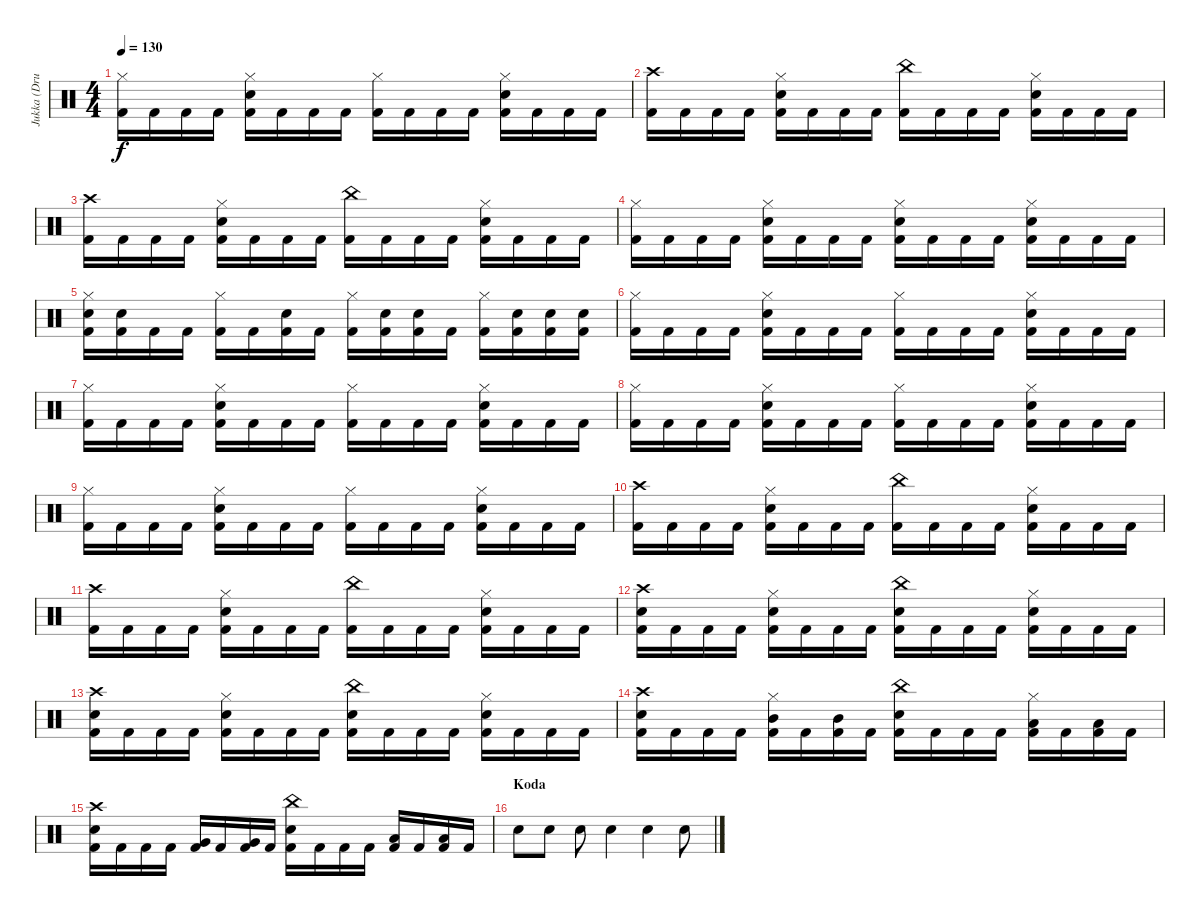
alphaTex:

\track ("Jukka (Drums)" "Jukka (Dru") {instrument percussion}
\staff {score}
\articulation defaults
\ts (4 4)
\tempo 130
\clef neutral
\ks c
("Hi-Hat (closed)" "Kick (hit) 2").16{dy f} "Kick (hit) 2".16 "Kick (hit) 2".16 "Kick (hit) 2".16 ("Hi-Hat (closed)" "Kick (hit) 2" "Electric Snare (hit)").16 "Kick (hit) 2".16 "Kick (hit) 2".16 "Kick (hit) 2".16 ("Hi-Hat (closed)" "Kick (hit) 2").16 "Kick (hit) 2".16 "Kick (hit) 2".16 "Kick (hit) 2".16 ("Hi-Hat (closed)" "Kick (hit) 2" "Electric Snare (hit)").16 "Kick (hit) 2".16 "Kick (hit) 2".16 "Kick (hit) 2".16 |
("Crash high (hit)" "Kick (hit) 2").16 "Kick (hit) 2".16 "Kick (hit) 2".16 "Kick (hit) 2".16 ("Hi-Hat (closed)" "Kick (hit) 2" "Electric Snare (hit)").16 "Kick (hit) 2".16 "Kick (hit) 2".16 "Kick (hit) 2".16 ("China (hit)" "Kick (hit) 2").16 "Kick (hit) 2".16 "Kick (hit) 2".16 "Kick (hit) 2".16 ("Hi-Hat (closed)" "Kick (hit) 2" "Electric Snare (hit)").16 "Kick (hit) 2".16 "Kick (hit) 2".16 "Kick (hit) 2".16 |
("Crash high (hit)" "Kick (hit) 2").16 "Kick (hit) 2".16 "Kick (hit) 2".16 "Kick (hit) 2".16 ("Hi-Hat (closed)" "Kick (hit) 2" "Electric Snare (hit)").16 "Kick (hit) 2".16 "Kick (hit) 2".16 "Kick (hit) 2".16 ("China (hit)" "Kick (hit) 2").16 "Kick (hit) 2".16 "Kick (hit) 2".16 "Kick (hit) 2".16 ("Hi-Hat (closed)" "Kick (hit) 2" "Electric Snare (hit)").16 "Kick (hit) 2".16 "Kick (hit) 2".16 "Kick (hit) 2".16 |
("Hi-Hat (closed)" "Kick (hit) 2").16 "Kick (hit) 2".16 "Kick (hit) 2".16 "Kick (hit) 2".16 ("Hi-Hat (closed)" "Kick (hit) 2" "Electric Snare (hit)").16 "Kick (hit) 2".16 "Kick (hit) 2".16 "Kick (hit) 2".16 ("Hi-Hat (closed)" "Kick (hit) 2" "Electric Snare (hit)").16 "Kick (hit) 2".16 "Kick (hit) 2".16 "Kick (hit) 2".16 ("Hi-Hat (closed)" "Kick (hit) 2" "Electric Snare (hit)").16 "Kick (hit) 2".16 "Kick (hit) 2".16 "Kick (hit) 2".16 |
("Hi-Hat (closed)" "Kick (hit) 2" "Electric Snare (hit)").16 ("Kick (hit) 2" "Electric Snare (hit)").16 "Kick (hit) 2".16 "Kick (hit) 2".16 ("Hi-Hat (closed)" "Kick (hit) 2").16 "Kick (hit) 2".16 ("Kick (hit) 2" "Electric Snare (hit)").16 "Kick (hit) 2".16 ("Hi-Hat (closed)" "Kick (hit) 2").16 ("Kick (hit) 2" "Electric Snare (hit)").16 ("Kick (hit) 2" "Electric Snare (hit)").16 "Kick (hit) 2".16 ("Hi-Hat (closed)" "Kick (hit) 2").16 ("Kick (hit) 2" "Electric Snare (hit)").16 ("Kick (hit) 2" "Electric Snare (hit)").16 ("Kick (hit) 2" "Electric Snare (hit)").16 |
("Hi-Hat (closed)" "Kick (hit) 2").16 "Kick (hit) 2".16 "Kick (hit) 2".16 "Kick (hit) 2".16 ("Hi-Hat (closed)" "Kick (hit) 2" "Electric Snare (hit)").16 "Kick (hit) 2".16 "Kick (hit) 2".16 "Kick (hit) 2".16 ("Hi-Hat (closed)" "Kick (hit) 2").16 "Kick (hit) 2".16 "Kick (hit) 2".16 "Kick (hit) 2".16 ("Hi-Hat (closed)" "Kick (hit) 2" "Electric Snare (hit)").16 "Kick (hit) 2".16 "Kick (hit) 2".16 "Kick (hit) 2".16 |
("Hi-Hat (closed)" "Kick (hit) 2").16 "Kick (hit) 2".16 "Kick (hit) 2".16 "Kick (hit) 2".16 ("Hi-Hat (closed)" "Kick (hit) 2" "Electric Snare (hit)").16 "Kick (hit) 2".16 "Kick (hit) 2".16 "Kick (hit) 2".16 ("Hi-Hat (closed)" "Kick (hit) 2").16 "Kick (hit) 2".16 "Kick (hit) 2".16 "Kick (hit) 2".16 ("Hi-Hat (closed)" "Kick (hit) 2" "Electric Snare (hit)").16 "Kick (hit) 2".16 "Kick (hit) 2".16 "Kick (hit) 2".16 |
("Hi-Hat (closed)" "Kick (hit) 2").16 "Kick (hit) 2".16 "Kick (hit) 2".16 "Kick (hit) 2".16 ("Hi-Hat (closed)" "Kick (hit) 2" "Electric Snare (hit)").16 "Kick (hit) 2".16 "Kick (hit) 2".16 "Kick (hit) 2".16 ("Hi-Hat (closed)" "Kick (hit) 2").16 "Kick (hit) 2".16 "Kick (hit) 2".16 "Kick (hit) 2".16 ("Hi-Hat (closed)" "Kick (hit) 2" "Electric Snare (hit)").16 "Kick (hit) 2".16 "Kick (hit) 2".16 "Kick (hit) 2".16 |
("Hi-Hat (closed)" "Kick (hit) 2").16 "Kick (hit) 2".16 "Kick (hit) 2".16 "Kick (hit) 2".16 ("Hi-Hat (closed)" "Kick (hit) 2" "Electric Snare (hit)").16 "Kick (hit) 2".16 "Kick (hit) 2".16 "Kick (hit) 2".16 ("Hi-Hat (closed)" "Kick (hit) 2").16 "Kick (hit) 2".16 "Kick (hit) 2".16 "Kick (hit) 2".16 ("Hi-Hat (closed)" "Kick (hit) 2" "Electric Snare (hit)").16 "Kick (hit) 2".16 "Kick (hit) 2".16 "Kick (hit) 2".16 |
("Crash high (hit)" "Kick (hit) 2").16 "Kick (hit) 2".16 "Kick (hit) 2".16 "Kick (hit) 2".16 ("Hi-Hat (closed)" "Kick (hit) 2" "Electric Snare (hit)").16 "Kick (hit) 2".16 "Kick (hit) 2".16 "Kick (hit) 2".16 ("China (hit)" "Kick (hit) 2").16 "Kick (hit) 2".16 "Kick (hit) 2".16 "Kick (hit) 2".16 ("Hi-Hat (closed)" "Kick (hit) 2" "Electric Snare (hit)").16 "Kick (hit) 2".16 "Kick (hit) 2".16 "Kick (hit) 2".16 |
("Crash high (hit)" "Kick (hit) 2").16 "Kick (hit) 2".16 "Kick (hit) 2".16 "Kick (hit) 2".16 ("Hi-Hat (closed)" "Kick (hit) 2" "Electric Snare (hit)").16 "Kick (hit) 2".16 "Kick (hit) 2".16 "Kick (hit) 2".16 ("China (hit)" "Kick (hit) 2").16 "Kick (hit) 2".16 "Kick (hit) 2".16 "Kick (hit) 2".16 ("Hi-Hat (closed)" "Kick (hit) 2" "Electric Snare (hit)").16 "Kick (hit) 2".16 "Kick (hit) 2".16 "Kick (hit) 2".16 |
("Crash high (hit)" "Kick (hit) 2" "Electric Snare (hit)").16 "Kick (hit) 2".16 "Kick (hit) 2".16 "Kick (hit) 2".16 ("Hi-Hat (closed)" "Kick (hit) 2" "Electric Snare (hit)").16 "Kick (hit) 2".16 "Kick (hit) 2".16 "Kick (hit) 2".16 ("China (hit)" "Kick (hit) 2" "Electric Snare (hit)").16 "Kick (hit) 2".16 "Kick (hit) 2".16 "Kick (hit) 2".16 ("Hi-Hat (closed)" "Kick (hit) 2" "Electric Snare (hit)").16 "Kick (hit) 2".16 "Kick (hit) 2".16 "Kick (hit) 2".16 |
("Crash high (hit)" "Kick (hit) 2" "Electric Snare (hit)").16 "Kick (hit) 2".16 "Kick (hit) 2".16 "Kick (hit) 2".16 ("Hi-Hat (closed)" "Kick (hit) 2" "Electric Snare (hit)").16 "Kick (hit) 2".16 "Kick (hit) 2".16 "Kick (hit) 2".16 ("China (hit)" "Kick (hit) 2" "Electric Snare (hit)").16 "Kick (hit) 2".16 "Kick (hit) 2".16 "Kick (hit) 2".16 ("Hi-Hat (closed)" "Kick (hit) 2" "Electric Snare (hit)").16 "Kick (hit) 2".16 "Kick (hit) 2".16 "Kick (hit) 2".16 |
("Crash high (hit)" "Kick (hit) 2" "Electric Snare (hit)").16 "Kick (hit) 2".16 "Kick (hit) 2".16 "Kick (hit) 2".16 ("Hi-Hat (closed)" "Kick (hit) 2" "Mid Tom (hit)").16 "Kick (hit) 2".16 ("Kick (hit) 2" "Mid Tom (hit)").16 "Kick (hit) 2".16 ("China (hit)" "Kick (hit) 2" "Electric Snare (hit)").16 "Kick (hit) 2".16 "Kick (hit) 2".16 "Kick (hit) 2".16 ("Hi-Hat (closed)" "Kick (hit) 2" "Low Tom (hit)").16 "Kick (hit) 2".16 ("Kick (hit) 2" "Low Tom (hit)").16 "Kick (hit) 2".16 |
("Crash high (hit)" "Kick (hit) 2" "Electric Snare (hit)").16 "Kick (hit) 2".16 "Kick (hit) 2".16 "Kick (hit) 2".16 ("Kick (hit) 2" "Very Low Tom (hit)").16 "Kick (hit) 2".16 ("Kick (hit) 2" "Very Low Tom (hit)").16 "Kick (hit) 2".16 ("China (hit)" "Kick (hit) 2" "Electric Snare (hit)").16 "Kick (hit) 2".16 "Kick (hit) 2".16 "Kick (hit) 2".16 ("Kick (hit) 2" "Low Floor Tom (hit)").16 "Kick (hit) 2".16 ("Kick (hit) 2" "Low Floor Tom (hit)").16 "Kick (hit) 2".16 |
\section ("" "Koda")
"Electric Snare (hit)".8 "Electric Snare (hit)".8 "Electric Snare (hit)".8 "Electric Snare (hit)".4 "Electric Snare (hit)".4 "Electric Snare (hit)".8
